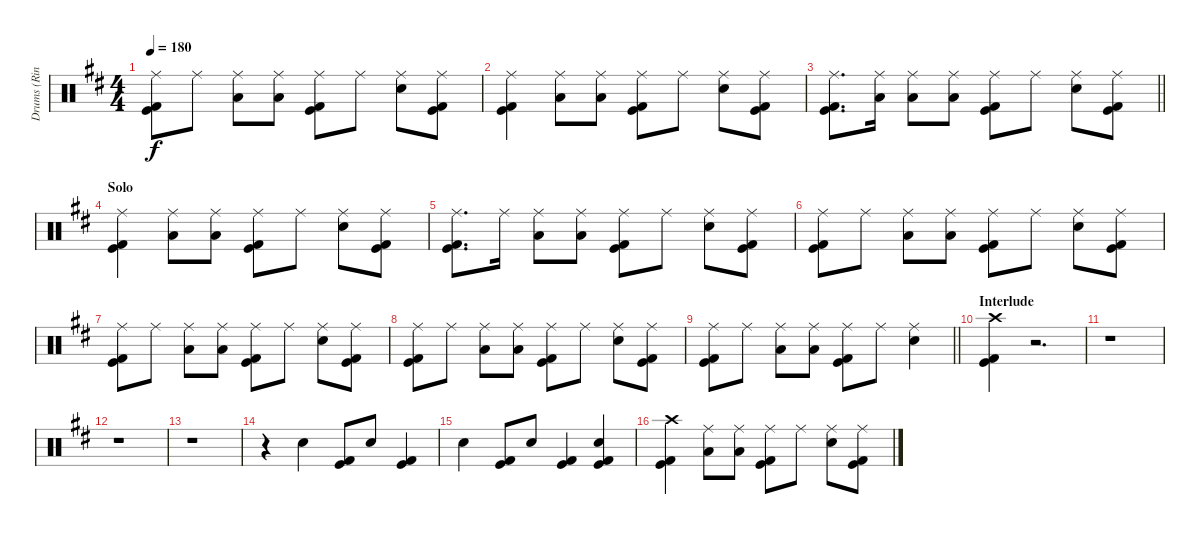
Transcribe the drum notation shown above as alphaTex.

\track ("Drums (Ringo)" "Drums (Rin") {instrument percussion}
\staff {score}
\articulation defaults
\ts (4 4)
\tempo 180
\clef neutral
\ks d
("Ride (middle)" "Kick (hit) 2" "Kick (hit)").8{dy f} "Ride (middle)".8 ("Ride (middle)" "Low Tom (hit)").8 ("Ride (middle)" "Low Tom (hit)").8 ("Ride (middle)" "Kick (hit) 2" "Kick (hit)").8 "Ride (middle)".8 ("Ride (middle)" "Electric Snare (hit)").8 ("Ride (middle)" "Kick (hit) 2" "Kick (hit)").8 |
("Ride (middle)" "Kick (hit) 2" "Kick (hit)").4 ("Ride (middle)" "Low Tom (hit)").8 ("Ride (middle)" "Low Tom (hit)").8 ("Ride (middle)" "Kick (hit) 2" "Kick (hit)").8 "Ride (middle)".8 ("Ride (middle)" "Electric Snare (hit)").8 ("Ride (middle)" "Kick (hit) 2" "Kick (hit)").8 |
\barLineRight lightlight
("Ride (middle)" "Kick (hit) 2" "Kick (hit)").8{d} ("Ride (middle)" "Low Tom (hit)").16 ("Ride (middle)" "Low Tom (hit)").8 ("Ride (middle)" "Low Tom (hit)").8 ("Ride (middle)" "Kick (hit) 2" "Kick (hit)").8 "Ride (middle)".8 ("Ride (middle)" "Electric Snare (hit)").8 ("Ride (middle)" "Kick (hit) 2" "Kick (hit)").8 |
\section ("" "Solo")
("Ride (middle)" "Kick (hit) 2" "Kick (hit)").4 ("Ride (middle)" "Low Tom (hit)").8 ("Ride (middle)" "Low Tom (hit)").8 ("Ride (middle)" "Kick (hit) 2" "Kick (hit)").8 "Ride (middle)".8 ("Ride (middle)" "Electric Snare (hit)").8 ("Ride (middle)" "Kick (hit) 2" "Kick (hit)").8 |
("Ride (middle)" "Kick (hit) 2" "Kick (hit)").8{d} "Ride (middle)".16 ("Ride (middle)" "Low Tom (hit)").8 ("Ride (middle)" "Low Tom (hit)").8 ("Ride (middle)" "Kick (hit) 2" "Kick (hit)").8 "Ride (middle)".8 ("Ride (middle)" "Electric Snare (hit)").8 ("Ride (middle)" "Kick (hit) 2" "Kick (hit)").8 |
("Ride (middle)" "Kick (hit) 2" "Kick (hit)").8 "Ride (middle)".8 ("Ride (middle)" "Low Tom (hit)").8 ("Ride (middle)" "Low Tom (hit)").8 ("Ride (middle)" "Kick (hit) 2" "Kick (hit)").8 "Ride (middle)".8 ("Ride (middle)" "Electric Snare (hit)").8 ("Ride (middle)" "Kick (hit) 2" "Kick (hit)").8 |
("Ride (middle)" "Kick (hit) 2" "Kick (hit)").8 "Ride (middle)".8 ("Ride (middle)" "Low Tom (hit)").8 ("Ride (middle)" "Low Tom (hit)").8 ("Ride (middle)" "Kick (hit) 2" "Kick (hit)").8 "Ride (middle)".8 ("Ride (middle)" "Electric Snare (hit)").8 ("Ride (middle)" "Kick (hit) 2" "Kick (hit)").8 |
("Ride (middle)" "Kick (hit) 2" "Kick (hit)").8 "Ride (middle)".8 ("Ride (middle)" "Low Tom (hit)").8 ("Ride (middle)" "Low Tom (hit)").8 ("Ride (middle)" "Kick (hit) 2" "Kick (hit)").8 "Ride (middle)".8 ("Ride (middle)" "Electric Snare (hit)").8 ("Ride (middle)" "Kick (hit) 2" "Kick (hit)").8 |
\barLineRight lightlight
("Ride (middle)" "Kick (hit) 2" "Kick (hit)").8 "Ride (middle)".8 ("Ride (middle)" "Low Tom (hit)").8 ("Ride (middle)" "Low Tom (hit)").8 ("Ride (middle)" "Kick (hit) 2" "Kick (hit)").8 "Ride (middle)".8 ("Ride (middle)" "Electric Snare (hit)").4 |
\section ("" "Interlude")
("Crash high (hit)" "Kick (hit) 2" "Kick (hit)").4 r.2{d} |
r.1 |
r.1 |
r.1 |
r.4 "Electric Snare (hit)".4 ("Kick (hit) 2" "Kick (hit)").8 "Electric Snare (hit)".8 ("Kick (hit) 2" "Kick (hit)").4 |
"Electric Snare (hit)".4 ("Kick (hit) 2" "Kick (hit)").8 "Electric Snare (hit)".8 ("Kick (hit) 2" "Kick (hit)").4 ("Electric Snare (hit)" "Kick (hit) 2" "Kick (hit)").4 |
("Crash high (hit)" "Kick (hit) 2" "Kick (hit)").4 ("Ride (middle)" "Low Tom (hit)").8 ("Ride (middle)" "Low Tom (hit)").8 ("Ride (middle)" "Kick (hit) 2" "Kick (hit)").8 "Ride (middle)".8 ("Ride (middle)" "Electric Snare (hit)").8 ("Ride (middle)" "Kick (hit) 2" "Kick (hit)").8
